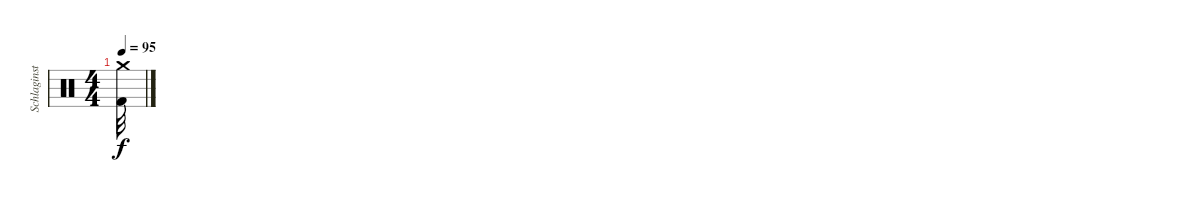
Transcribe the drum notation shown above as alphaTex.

\track ("Schlaginstrumente - Auswahl" "Schlaginst") {instrument percussion}
\staff {score}
\articulation defaults
\ts (4 4)
\tempo 95
\clef neutral
\ks c
("Kick (hit) 2" "Crash medium (hit)").32{dy f}
